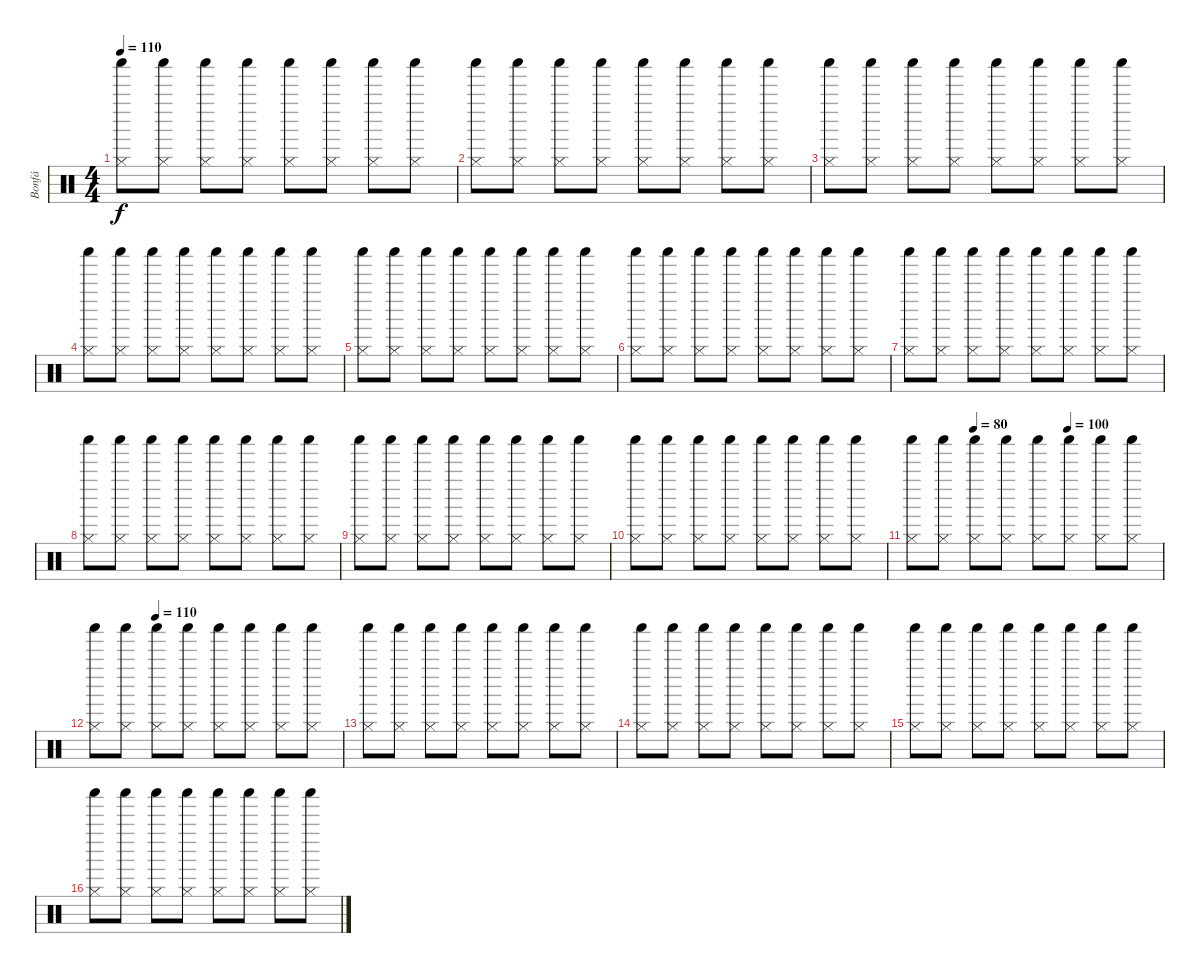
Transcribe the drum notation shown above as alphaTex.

\track ("Bonfá" "Bonfá") {instrument percussion}
\staff {score}
\articulation defaults
\ts (4 4)
\tempo 110
\clef neutral
\ks c
("Shaker (hit)" "Hi-Hat (closed)").8{dy f} ("Shaker (hit)" "Hi-Hat (closed)").8 ("Shaker (hit)" "Hi-Hat (closed)").8 ("Shaker (hit)" "Hi-Hat (closed)").8 ("Shaker (hit)" "Hi-Hat (closed)").8 ("Shaker (hit)" "Hi-Hat (closed)").8 ("Shaker (hit)" "Hi-Hat (closed)").8 ("Shaker (hit)" "Hi-Hat (closed)").8 |
("Shaker (hit)" "Hi-Hat (closed)").8 ("Shaker (hit)" "Hi-Hat (closed)").8 ("Shaker (hit)" "Hi-Hat (closed)").8 ("Shaker (hit)" "Hi-Hat (closed)").8 ("Shaker (hit)" "Hi-Hat (closed)").8 ("Shaker (hit)" "Hi-Hat (closed)").8 ("Shaker (hit)" "Hi-Hat (closed)").8 ("Shaker (hit)" "Hi-Hat (closed)").8 |
("Shaker (hit)" "Hi-Hat (closed)").8 ("Shaker (hit)" "Hi-Hat (closed)").8 ("Shaker (hit)" "Hi-Hat (closed)").8 ("Shaker (hit)" "Hi-Hat (closed)").8 ("Shaker (hit)" "Hi-Hat (closed)").8 ("Shaker (hit)" "Hi-Hat (closed)").8 ("Shaker (hit)" "Hi-Hat (closed)").8 ("Shaker (hit)" "Hi-Hat (closed)").8 |
("Shaker (hit)" "Hi-Hat (closed)").8 ("Shaker (hit)" "Hi-Hat (closed)").8 ("Shaker (hit)" "Hi-Hat (closed)").8 ("Shaker (hit)" "Hi-Hat (closed)").8 ("Shaker (hit)" "Hi-Hat (closed)").8 ("Shaker (hit)" "Hi-Hat (closed)").8 ("Shaker (hit)" "Hi-Hat (closed)").8 ("Shaker (hit)" "Hi-Hat (closed)").8 |
("Shaker (hit)" "Hi-Hat (closed)").8 ("Shaker (hit)" "Hi-Hat (closed)").8 ("Shaker (hit)" "Hi-Hat (closed)").8 ("Shaker (hit)" "Hi-Hat (closed)").8 ("Shaker (hit)" "Hi-Hat (closed)").8 ("Shaker (hit)" "Hi-Hat (closed)").8 ("Shaker (hit)" "Hi-Hat (closed)").8 ("Shaker (hit)" "Hi-Hat (closed)").8 |
("Shaker (hit)" "Hi-Hat (closed)").8 ("Shaker (hit)" "Hi-Hat (closed)").8 ("Shaker (hit)" "Hi-Hat (closed)").8 ("Shaker (hit)" "Hi-Hat (closed)").8 ("Shaker (hit)" "Hi-Hat (closed)").8 ("Shaker (hit)" "Hi-Hat (closed)").8 ("Shaker (hit)" "Hi-Hat (closed)").8 ("Shaker (hit)" "Hi-Hat (closed)").8 |
("Shaker (hit)" "Hi-Hat (closed)").8 ("Shaker (hit)" "Hi-Hat (closed)").8 ("Shaker (hit)" "Hi-Hat (closed)").8 ("Shaker (hit)" "Hi-Hat (closed)").8 ("Shaker (hit)" "Hi-Hat (closed)").8 ("Shaker (hit)" "Hi-Hat (closed)").8 ("Shaker (hit)" "Hi-Hat (closed)").8 ("Shaker (hit)" "Hi-Hat (closed)").8 |
("Shaker (hit)" "Hi-Hat (closed)").8 ("Shaker (hit)" "Hi-Hat (closed)").8 ("Shaker (hit)" "Hi-Hat (closed)").8 ("Shaker (hit)" "Hi-Hat (closed)").8 ("Shaker (hit)" "Hi-Hat (closed)").8 ("Shaker (hit)" "Hi-Hat (closed)").8 ("Shaker (hit)" "Hi-Hat (closed)").8 ("Shaker (hit)" "Hi-Hat (closed)").8 |
("Shaker (hit)" "Hi-Hat (closed)").8 ("Shaker (hit)" "Hi-Hat (closed)").8 ("Shaker (hit)" "Hi-Hat (closed)").8 ("Shaker (hit)" "Hi-Hat (closed)").8 ("Shaker (hit)" "Hi-Hat (closed)").8 ("Shaker (hit)" "Hi-Hat (closed)").8 ("Shaker (hit)" "Hi-Hat (closed)").8 ("Shaker (hit)" "Hi-Hat (closed)").8 |
("Shaker (hit)" "Hi-Hat (closed)").8 ("Shaker (hit)" "Hi-Hat (closed)").8 ("Shaker (hit)" "Hi-Hat (closed)").8 ("Shaker (hit)" "Hi-Hat (closed)").8 ("Shaker (hit)" "Hi-Hat (closed)").8 ("Shaker (hit)" "Hi-Hat (closed)").8 ("Shaker (hit)" "Hi-Hat (closed)").8 ("Shaker (hit)" "Hi-Hat (closed)").8 |
\tempo (80 0.25)
\tempo (100 0.625)
("Shaker (hit)" "Hi-Hat (closed)").8 ("Shaker (hit)" "Hi-Hat (closed)").8 ("Shaker (hit)" "Hi-Hat (closed)").8 ("Shaker (hit)" "Hi-Hat (closed)").8 ("Shaker (hit)" "Hi-Hat (closed)").8 ("Shaker (hit)" "Hi-Hat (closed)").8 ("Shaker (hit)" "Hi-Hat (closed)").8 ("Shaker (hit)" "Hi-Hat (closed)").8 |
\tempo (110 0.25)
("Shaker (hit)" "Hi-Hat (closed)").8 ("Shaker (hit)" "Hi-Hat (closed)").8 ("Shaker (hit)" "Hi-Hat (closed)").8 ("Shaker (hit)" "Hi-Hat (closed)").8 ("Shaker (hit)" "Hi-Hat (closed)").8 ("Shaker (hit)" "Hi-Hat (closed)").8 ("Shaker (hit)" "Hi-Hat (closed)").8 ("Shaker (hit)" "Hi-Hat (closed)").8 |
("Shaker (hit)" "Hi-Hat (closed)").8 ("Shaker (hit)" "Hi-Hat (closed)").8 ("Shaker (hit)" "Hi-Hat (closed)").8 ("Shaker (hit)" "Hi-Hat (closed)").8 ("Shaker (hit)" "Hi-Hat (closed)").8 ("Shaker (hit)" "Hi-Hat (closed)").8 ("Shaker (hit)" "Hi-Hat (closed)").8 ("Shaker (hit)" "Hi-Hat (closed)").8 |
("Shaker (hit)" "Hi-Hat (closed)").8 ("Shaker (hit)" "Hi-Hat (closed)").8 ("Shaker (hit)" "Hi-Hat (closed)").8 ("Shaker (hit)" "Hi-Hat (closed)").8 ("Shaker (hit)" "Hi-Hat (closed)").8 ("Shaker (hit)" "Hi-Hat (closed)").8 ("Shaker (hit)" "Hi-Hat (closed)").8 ("Shaker (hit)" "Hi-Hat (closed)").8 |
("Shaker (hit)" "Hi-Hat (closed)").8 ("Shaker (hit)" "Hi-Hat (closed)").8 ("Shaker (hit)" "Hi-Hat (closed)").8 ("Shaker (hit)" "Hi-Hat (closed)").8 ("Shaker (hit)" "Hi-Hat (closed)").8 ("Shaker (hit)" "Hi-Hat (closed)").8 ("Shaker (hit)" "Hi-Hat (closed)").8 ("Shaker (hit)" "Hi-Hat (closed)").8 |
("Shaker (hit)" "Hi-Hat (closed)").8 ("Shaker (hit)" "Hi-Hat (closed)").8 ("Shaker (hit)" "Hi-Hat (closed)").8 ("Shaker (hit)" "Hi-Hat (closed)").8 ("Shaker (hit)" "Hi-Hat (closed)").8 ("Shaker (hit)" "Hi-Hat (closed)").8 ("Shaker (hit)" "Hi-Hat (closed)").8 ("Shaker (hit)" "Hi-Hat (closed)").8
